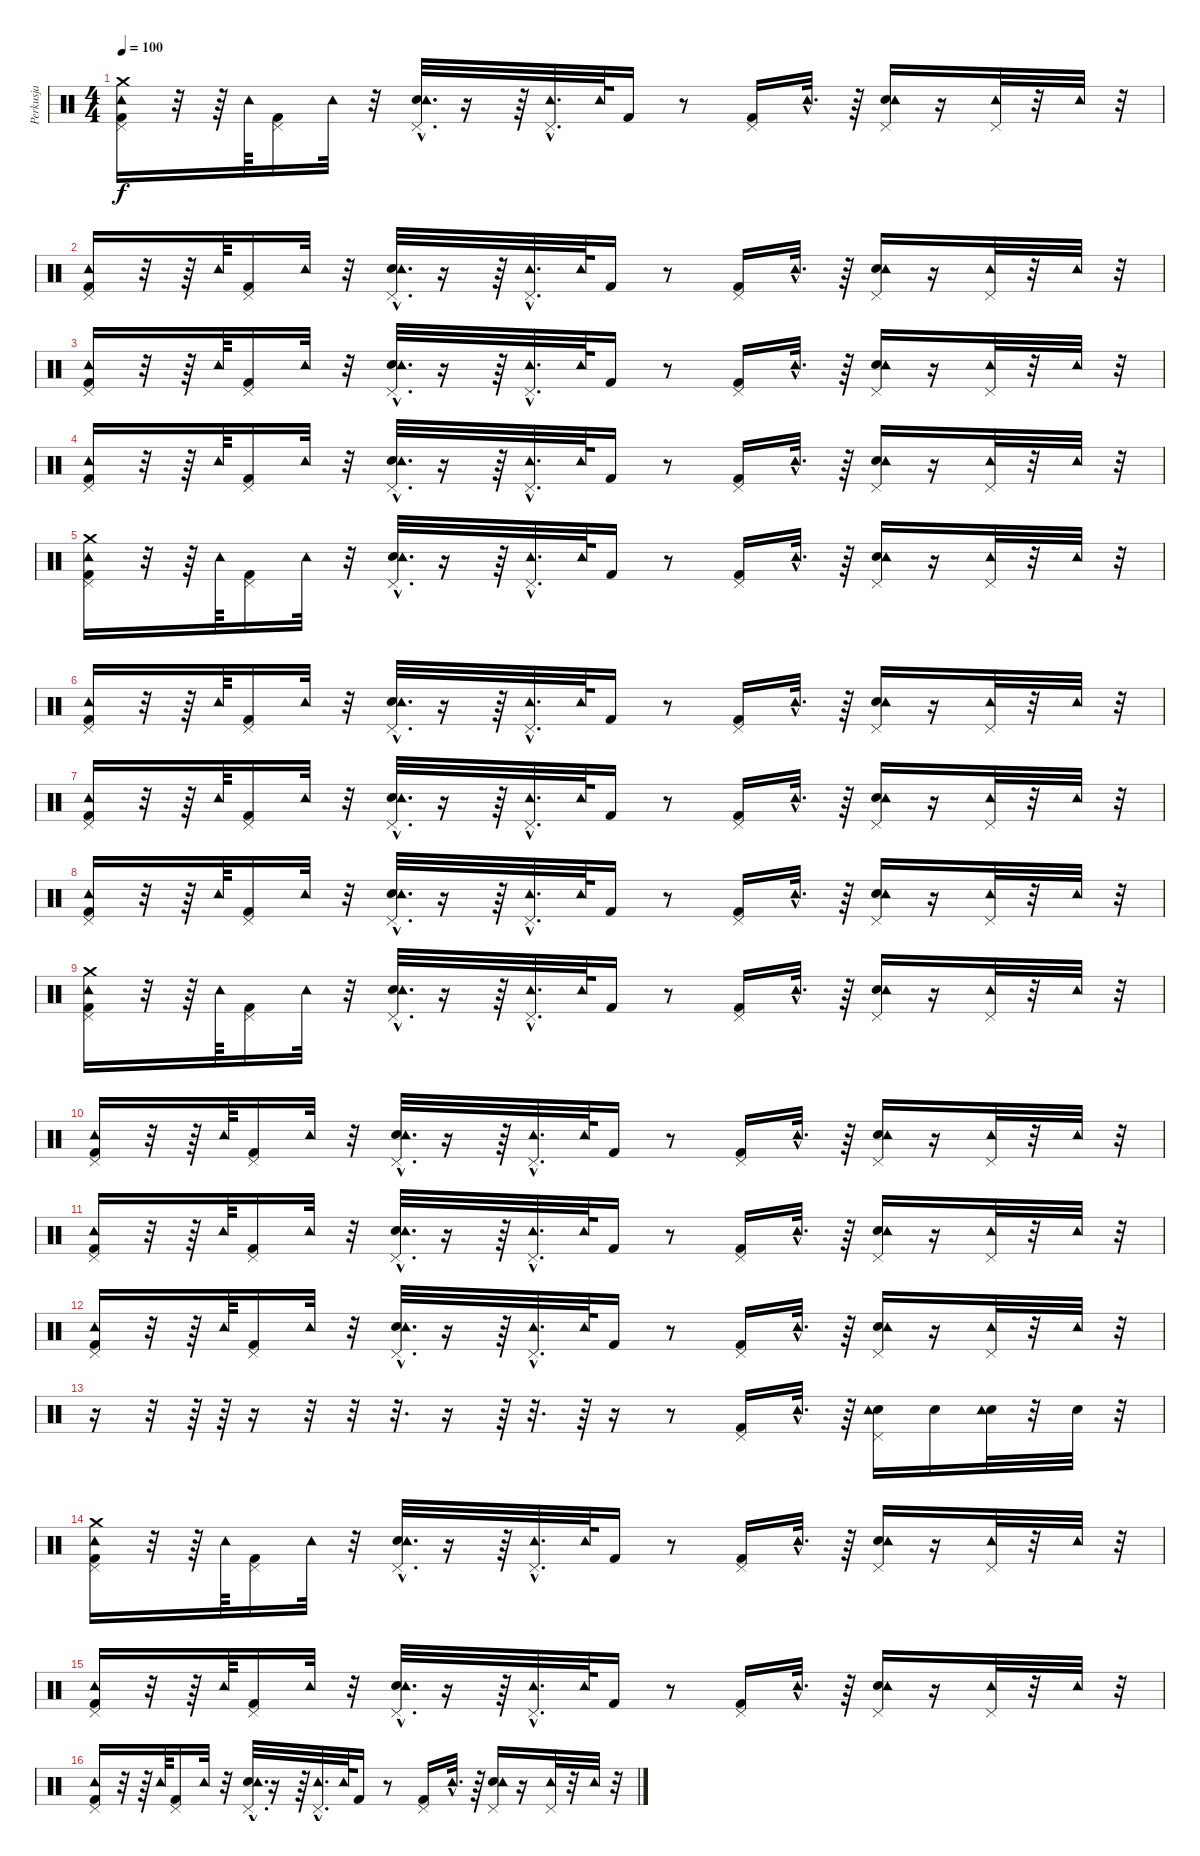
\track ("Perkusja" "Perkusja") {instrument percussion}
\staff {score}
\articulation defaults
\ts (4 4)
\tempo 100
\clef neutral
\ks c
("Tambourine (hit)" "Pedal Hi-Hat (hit)" "Kick (hit) 2" "Crash medium (hit)").16{dy f} r.32 r.64 "Tambourine (hit)".64 ("Kick (hit) 2" "Pedal Hi-Hat (hit)").16 "Tambourine (hit)".32 r.32 ("Electric Snare (hit)"{hac} "Pedal Hi-Hat (hit)"{hac} "Tambourine (hit)"{hac}).32{d} r.16 r.64 ("Pedal Hi-Hat (hit)"{hac} "Tambourine (hit)"{hac}).32{d} "Tambourine (hit)".64 "Kick (hit) 2".16 r.8 ("Kick (hit) 2" "Pedal Hi-Hat (hit)").16 "Tambourine (hit)"{hac}.32{d} r.64 ("Electric Snare (hit)" "Pedal Hi-Hat (hit)" "Tambourine (hit)").16 r.16 ("Pedal Hi-Hat (hit)" "Tambourine (hit)").32 r.32 "Tambourine (hit)".32 r.32 |
("Tambourine (hit)" "Pedal Hi-Hat (hit)" "Kick (hit) 2").16 r.32 r.64 "Tambourine (hit)".64 ("Kick (hit) 2" "Pedal Hi-Hat (hit)").16 "Tambourine (hit)".32 r.32 ("Electric Snare (hit)"{hac} "Pedal Hi-Hat (hit)"{hac} "Tambourine (hit)"{hac}).32{d} r.16 r.64 ("Pedal Hi-Hat (hit)"{hac} "Tambourine (hit)"{hac}).32{d} "Tambourine (hit)".64 "Kick (hit) 2".16 r.8 ("Kick (hit) 2" "Pedal Hi-Hat (hit)").16 "Tambourine (hit)"{hac}.32{d} r.64 ("Electric Snare (hit)" "Pedal Hi-Hat (hit)" "Tambourine (hit)").16 r.16 ("Pedal Hi-Hat (hit)" "Tambourine (hit)").32 r.32 "Tambourine (hit)".32 r.32 |
("Tambourine (hit)" "Pedal Hi-Hat (hit)" "Kick (hit) 2").16 r.32 r.64 "Tambourine (hit)".64 ("Kick (hit) 2" "Pedal Hi-Hat (hit)").16 "Tambourine (hit)".32 r.32 ("Electric Snare (hit)"{hac} "Pedal Hi-Hat (hit)"{hac} "Tambourine (hit)"{hac}).32{d} r.16 r.64 ("Pedal Hi-Hat (hit)"{hac} "Tambourine (hit)"{hac}).32{d} "Tambourine (hit)".64 "Kick (hit) 2".16 r.8 ("Kick (hit) 2" "Pedal Hi-Hat (hit)").16 "Tambourine (hit)"{hac}.32{d} r.64 ("Electric Snare (hit)" "Pedal Hi-Hat (hit)" "Tambourine (hit)").16 r.16 ("Pedal Hi-Hat (hit)" "Tambourine (hit)").32 r.32 "Tambourine (hit)".32 r.32 |
("Tambourine (hit)" "Pedal Hi-Hat (hit)" "Kick (hit) 2").16 r.32 r.64 "Tambourine (hit)".64 ("Kick (hit) 2" "Pedal Hi-Hat (hit)").16 "Tambourine (hit)".32 r.32 ("Electric Snare (hit)"{hac} "Pedal Hi-Hat (hit)"{hac} "Tambourine (hit)"{hac}).32{d} r.16 r.64 ("Pedal Hi-Hat (hit)"{hac} "Tambourine (hit)"{hac}).32{d} "Tambourine (hit)".64 "Kick (hit) 2".16 r.8 ("Kick (hit) 2" "Pedal Hi-Hat (hit)").16 "Tambourine (hit)"{hac}.32{d} r.64 ("Electric Snare (hit)" "Pedal Hi-Hat (hit)" "Tambourine (hit)").16 r.16 ("Pedal Hi-Hat (hit)" "Tambourine (hit)").32 r.32 "Tambourine (hit)".32 r.32 |
("Tambourine (hit)" "Pedal Hi-Hat (hit)" "Kick (hit) 2" "Crash medium (hit)").16 r.32 r.64 "Tambourine (hit)".64 ("Kick (hit) 2" "Pedal Hi-Hat (hit)").16 "Tambourine (hit)".32 r.32 ("Electric Snare (hit)"{hac} "Pedal Hi-Hat (hit)"{hac} "Tambourine (hit)"{hac}).32{d} r.16 r.64 ("Pedal Hi-Hat (hit)"{hac} "Tambourine (hit)"{hac}).32{d} "Tambourine (hit)".64 "Kick (hit) 2".16 r.8 ("Kick (hit) 2" "Pedal Hi-Hat (hit)").16 "Tambourine (hit)"{hac}.32{d} r.64 ("Electric Snare (hit)" "Pedal Hi-Hat (hit)" "Tambourine (hit)").16 r.16 ("Pedal Hi-Hat (hit)" "Tambourine (hit)").32 r.32 "Tambourine (hit)".32 r.32 |
("Tambourine (hit)" "Pedal Hi-Hat (hit)" "Kick (hit) 2").16 r.32 r.64 "Tambourine (hit)".64 ("Kick (hit) 2" "Pedal Hi-Hat (hit)").16 "Tambourine (hit)".32 r.32 ("Electric Snare (hit)"{hac} "Pedal Hi-Hat (hit)"{hac} "Tambourine (hit)"{hac}).32{d} r.16 r.64 ("Pedal Hi-Hat (hit)"{hac} "Tambourine (hit)"{hac}).32{d} "Tambourine (hit)".64 "Kick (hit) 2".16 r.8 ("Kick (hit) 2" "Pedal Hi-Hat (hit)").16 "Tambourine (hit)"{hac}.32{d} r.64 ("Electric Snare (hit)" "Pedal Hi-Hat (hit)" "Tambourine (hit)").16 r.16 ("Pedal Hi-Hat (hit)" "Tambourine (hit)").32 r.32 "Tambourine (hit)".32 r.32 |
("Tambourine (hit)" "Pedal Hi-Hat (hit)" "Kick (hit) 2").16 r.32 r.64 "Tambourine (hit)".64 ("Kick (hit) 2" "Pedal Hi-Hat (hit)").16 "Tambourine (hit)".32 r.32 ("Electric Snare (hit)"{hac} "Pedal Hi-Hat (hit)"{hac} "Tambourine (hit)"{hac}).32{d} r.16 r.64 ("Pedal Hi-Hat (hit)"{hac} "Tambourine (hit)"{hac}).32{d} "Tambourine (hit)".64 "Kick (hit) 2".16 r.8 ("Kick (hit) 2" "Pedal Hi-Hat (hit)").16 "Tambourine (hit)"{hac}.32{d} r.64 ("Electric Snare (hit)" "Pedal Hi-Hat (hit)" "Tambourine (hit)").16 r.16 ("Pedal Hi-Hat (hit)" "Tambourine (hit)").32 r.32 "Tambourine (hit)".32 r.32 |
("Tambourine (hit)" "Pedal Hi-Hat (hit)" "Kick (hit) 2").16 r.32 r.64 "Tambourine (hit)".64 ("Kick (hit) 2" "Pedal Hi-Hat (hit)").16 "Tambourine (hit)".32 r.32 ("Electric Snare (hit)"{hac} "Pedal Hi-Hat (hit)"{hac} "Tambourine (hit)"{hac}).32{d} r.16 r.64 ("Pedal Hi-Hat (hit)"{hac} "Tambourine (hit)"{hac}).32{d} "Tambourine (hit)".64 "Kick (hit) 2".16 r.8 ("Kick (hit) 2" "Pedal Hi-Hat (hit)").16 "Tambourine (hit)"{hac}.32{d} r.64 ("Electric Snare (hit)" "Pedal Hi-Hat (hit)" "Tambourine (hit)").16 r.16 ("Pedal Hi-Hat (hit)" "Tambourine (hit)").32 r.32 "Tambourine (hit)".32 r.32 |
("Tambourine (hit)" "Pedal Hi-Hat (hit)" "Kick (hit) 2" "Crash medium (hit)").16 r.32 r.64 "Tambourine (hit)".64 ("Kick (hit) 2" "Pedal Hi-Hat (hit)").16 "Tambourine (hit)".32 r.32 ("Electric Snare (hit)"{hac} "Pedal Hi-Hat (hit)"{hac} "Tambourine (hit)"{hac}).32{d} r.16 r.64 ("Pedal Hi-Hat (hit)"{hac} "Tambourine (hit)"{hac}).32{d} "Tambourine (hit)".64 "Kick (hit) 2".16 r.8 ("Kick (hit) 2" "Pedal Hi-Hat (hit)").16 "Tambourine (hit)"{hac}.32{d} r.64 ("Electric Snare (hit)" "Pedal Hi-Hat (hit)" "Tambourine (hit)").16 r.16 ("Pedal Hi-Hat (hit)" "Tambourine (hit)").32 r.32 "Tambourine (hit)".32 r.32 |
("Tambourine (hit)" "Pedal Hi-Hat (hit)" "Kick (hit) 2").16 r.32 r.64 "Tambourine (hit)".64 ("Kick (hit) 2" "Pedal Hi-Hat (hit)").16 "Tambourine (hit)".32 r.32 ("Electric Snare (hit)"{hac} "Pedal Hi-Hat (hit)"{hac} "Tambourine (hit)"{hac}).32{d} r.16 r.64 ("Pedal Hi-Hat (hit)"{hac} "Tambourine (hit)"{hac}).32{d} "Tambourine (hit)".64 "Kick (hit) 2".16 r.8 ("Kick (hit) 2" "Pedal Hi-Hat (hit)").16 "Tambourine (hit)"{hac}.32{d} r.64 ("Electric Snare (hit)" "Pedal Hi-Hat (hit)" "Tambourine (hit)").16 r.16 ("Pedal Hi-Hat (hit)" "Tambourine (hit)").32 r.32 "Tambourine (hit)".32 r.32 |
("Tambourine (hit)" "Pedal Hi-Hat (hit)" "Kick (hit) 2").16 r.32 r.64 "Tambourine (hit)".64 ("Kick (hit) 2" "Pedal Hi-Hat (hit)").16 "Tambourine (hit)".32 r.32 ("Electric Snare (hit)"{hac} "Pedal Hi-Hat (hit)"{hac} "Tambourine (hit)"{hac}).32{d} r.16 r.64 ("Pedal Hi-Hat (hit)"{hac} "Tambourine (hit)"{hac}).32{d} "Tambourine (hit)".64 "Kick (hit) 2".16 r.8 ("Kick (hit) 2" "Pedal Hi-Hat (hit)").16 "Tambourine (hit)"{hac}.32{d} r.64 ("Electric Snare (hit)" "Pedal Hi-Hat (hit)" "Tambourine (hit)").16 r.16 ("Pedal Hi-Hat (hit)" "Tambourine (hit)").32 r.32 "Tambourine (hit)".32 r.32 |
("Tambourine (hit)" "Pedal Hi-Hat (hit)" "Kick (hit) 2").16 r.32 r.64 "Tambourine (hit)".64 ("Kick (hit) 2" "Pedal Hi-Hat (hit)").16 "Tambourine (hit)".32 r.32 ("Electric Snare (hit)"{hac} "Pedal Hi-Hat (hit)"{hac} "Tambourine (hit)"{hac}).32{d} r.16 r.64 ("Pedal Hi-Hat (hit)"{hac} "Tambourine (hit)"{hac}).32{d} "Tambourine (hit)".64 "Kick (hit) 2".16 r.8 ("Kick (hit) 2" "Pedal Hi-Hat (hit)").16 "Tambourine (hit)"{hac}.32{d} r.64 ("Electric Snare (hit)" "Pedal Hi-Hat (hit)" "Tambourine (hit)").16 r.16 ("Pedal Hi-Hat (hit)" "Tambourine (hit)").32 r.32 "Tambourine (hit)".32 r.32 |
r.16 r.32 r.64 r.64 r.16 r.32 r.32 r.32{d} r.16 r.64 r.32{d} r.64 r.16 r.8 ("Kick (hit) 2" "Pedal Hi-Hat (hit)").16 "Tambourine (hit)"{hac}.32{d} r.64 ("Electric Snare (hit)" "Pedal Hi-Hat (hit)" "Tambourine (hit)").16 "Electric Snare (hit)".16 ("Electric Snare (hit)" "Tambourine (hit)").32 r.32 "Electric Snare (hit)".32 r.32 |
("Tambourine (hit)" "Pedal Hi-Hat (hit)" "Kick (hit) 2" "Crash medium (hit)").16 r.32 r.64 "Tambourine (hit)".64 ("Kick (hit) 2" "Pedal Hi-Hat (hit)").16 "Tambourine (hit)".32 r.32 ("Electric Snare (hit)"{hac} "Pedal Hi-Hat (hit)"{hac} "Tambourine (hit)"{hac}).32{d} r.16 r.64 ("Pedal Hi-Hat (hit)"{hac} "Tambourine (hit)"{hac}).32{d} "Tambourine (hit)".64 "Kick (hit) 2".16 r.8 ("Kick (hit) 2" "Pedal Hi-Hat (hit)").16 "Tambourine (hit)"{hac}.32{d} r.64 ("Electric Snare (hit)" "Pedal Hi-Hat (hit)" "Tambourine (hit)").16 r.16 ("Pedal Hi-Hat (hit)" "Tambourine (hit)").32 r.32 "Tambourine (hit)".32 r.32 |
("Tambourine (hit)" "Pedal Hi-Hat (hit)" "Kick (hit) 2").16 r.32 r.64 "Tambourine (hit)".64 ("Kick (hit) 2" "Pedal Hi-Hat (hit)").16 "Tambourine (hit)".32 r.32 ("Electric Snare (hit)"{hac} "Pedal Hi-Hat (hit)"{hac} "Tambourine (hit)"{hac}).32{d} r.16 r.64 ("Pedal Hi-Hat (hit)"{hac} "Tambourine (hit)"{hac}).32{d} "Tambourine (hit)".64 "Kick (hit) 2".16 r.8 ("Kick (hit) 2" "Pedal Hi-Hat (hit)").16 "Tambourine (hit)"{hac}.32{d} r.64 ("Electric Snare (hit)" "Pedal Hi-Hat (hit)" "Tambourine (hit)").16 r.16 ("Pedal Hi-Hat (hit)" "Tambourine (hit)").32 r.32 "Tambourine (hit)".32 r.32 |
("Tambourine (hit)" "Pedal Hi-Hat (hit)" "Kick (hit) 2").16 r.32 r.64 "Tambourine (hit)".64 ("Kick (hit) 2" "Pedal Hi-Hat (hit)").16 "Tambourine (hit)".32 r.32 ("Electric Snare (hit)"{hac} "Pedal Hi-Hat (hit)"{hac} "Tambourine (hit)"{hac}).32{d} r.16 r.64 ("Pedal Hi-Hat (hit)"{hac} "Tambourine (hit)"{hac}).32{d} "Tambourine (hit)".64 "Kick (hit) 2".16 r.8 ("Kick (hit) 2" "Pedal Hi-Hat (hit)").16 "Tambourine (hit)"{hac}.32{d} r.64 ("Electric Snare (hit)" "Pedal Hi-Hat (hit)" "Tambourine (hit)").16 r.16 ("Pedal Hi-Hat (hit)" "Tambourine (hit)").32 r.32 "Tambourine (hit)".32 r.32
